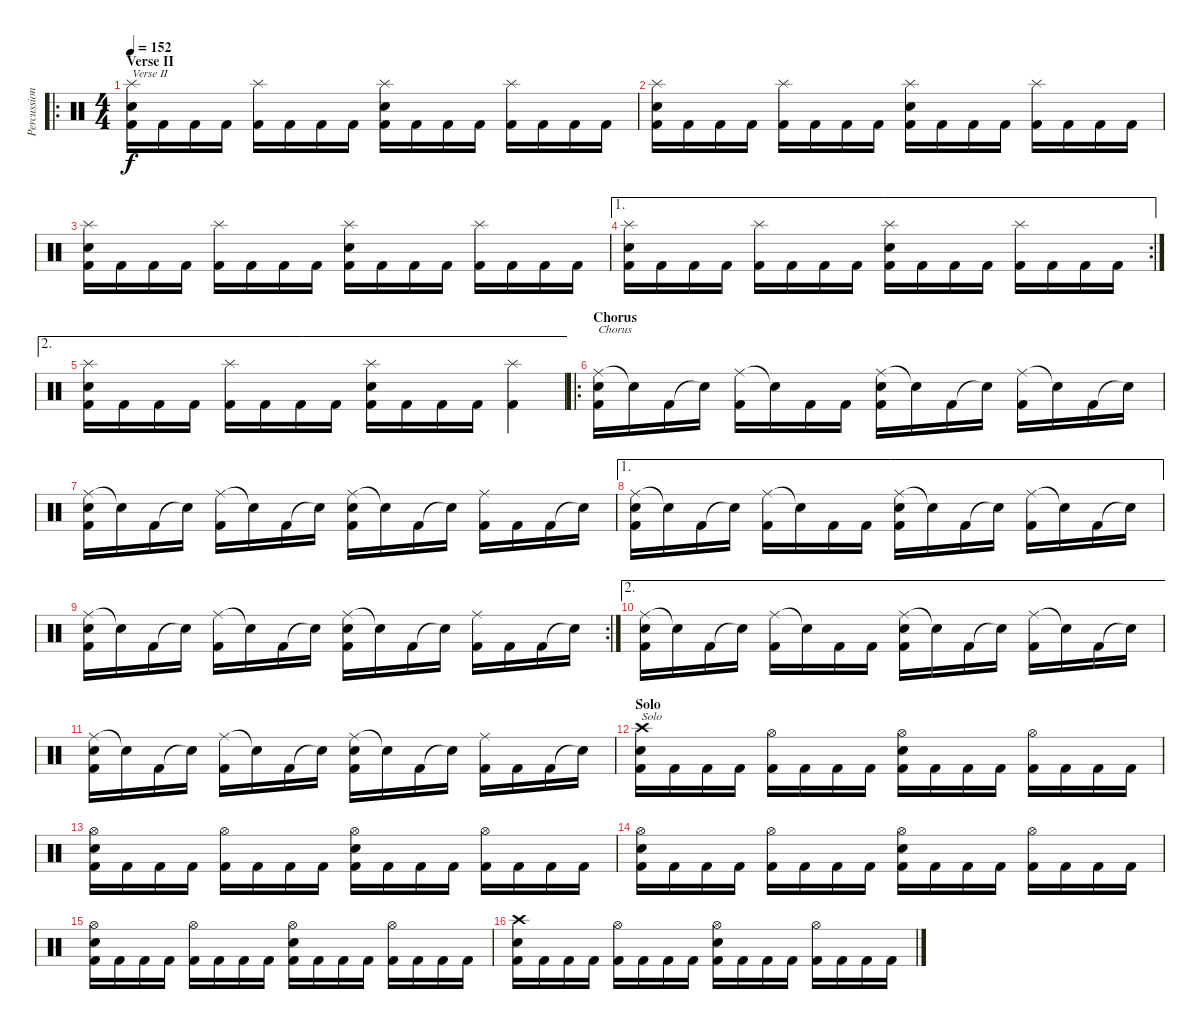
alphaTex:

\track ("Percussion" "Percussion") {instrument percussion}
\staff {score}
\articulation defaults
\ro
\ts (4 4)
\section ("" "Verse II")
\tempo 152
\clef neutral
\ks c
("Splash (hit)" "Electric Snare (hit)" "Kick (hit) 2").16{txt "Verse II" dy f} "Kick (hit) 2".16 "Kick (hit) 2".16 "Kick (hit) 2".16 ("Splash (hit)" "Kick (hit) 2").16 "Kick (hit) 2".16 "Kick (hit) 2".16 "Kick (hit) 2".16 ("Splash (hit)" "Electric Snare (hit)" "Kick (hit) 2").16 "Kick (hit) 2".16 "Kick (hit) 2".16 "Kick (hit) 2".16 ("Splash (hit)" "Kick (hit) 2").16 "Kick (hit) 2".16 "Kick (hit) 2".16 "Kick (hit) 2".16 |
("Splash (hit)" "Electric Snare (hit)" "Kick (hit) 2").16 "Kick (hit) 2".16 "Kick (hit) 2".16 "Kick (hit) 2".16 ("Splash (hit)" "Kick (hit) 2").16 "Kick (hit) 2".16 "Kick (hit) 2".16 "Kick (hit) 2".16 ("Splash (hit)" "Electric Snare (hit)" "Kick (hit) 2").16 "Kick (hit) 2".16 "Kick (hit) 2".16 "Kick (hit) 2".16 ("Splash (hit)" "Kick (hit) 2").16 "Kick (hit) 2".16 "Kick (hit) 2".16 "Kick (hit) 2".16 |
("Splash (hit)" "Electric Snare (hit)" "Kick (hit) 2").16 "Kick (hit) 2".16 "Kick (hit) 2".16 "Kick (hit) 2".16 ("Splash (hit)" "Kick (hit) 2").16 "Kick (hit) 2".16 "Kick (hit) 2".16 "Kick (hit) 2".16 ("Splash (hit)" "Electric Snare (hit)" "Kick (hit) 2").16 "Kick (hit) 2".16 "Kick (hit) 2".16 "Kick (hit) 2".16 ("Splash (hit)" "Kick (hit) 2").16 "Kick (hit) 2".16 "Kick (hit) 2".16 "Kick (hit) 2".16 |
\ae 1
\rc 2
("Splash (hit)" "Electric Snare (hit)" "Kick (hit) 2").16 "Kick (hit) 2".16 "Kick (hit) 2".16 "Kick (hit) 2".16 ("Splash (hit)" "Kick (hit) 2").16 "Kick (hit) 2".16 "Kick (hit) 2".16 "Kick (hit) 2".16 ("Splash (hit)" "Electric Snare (hit)" "Kick (hit) 2").16 "Kick (hit) 2".16 "Kick (hit) 2".16 "Kick (hit) 2".16 ("Splash (hit)" "Kick (hit) 2").16 "Kick (hit) 2".16 "Kick (hit) 2".16 "Kick (hit) 2".16 |
\ae 2
("Splash (hit)" "Electric Snare (hit)" "Kick (hit) 2").16 "Kick (hit) 2".16 "Kick (hit) 2".16 "Kick (hit) 2".16 ("Splash (hit)" "Kick (hit) 2").16 "Kick (hit) 2".16 "Kick (hit) 2".16 "Kick (hit) 2".16 ("Splash (hit)" "Electric Snare (hit)" "Kick (hit) 2").16 "Kick (hit) 2".16 "Kick (hit) 2".16 "Kick (hit) 2".16 ("Splash (hit)" "Kick (hit) 2").4 |
\ro
\section ("" "Chorus")
("Ride (middle)" "Electric Snare (hit)" "Kick (hit) 2").16{txt "Chorus"} "Snare (hit)"{t}.16 "Kick (hit) 2".16 "Snare (hit)"{t}.16 ("Ride (middle)" "Kick (hit) 2").16 "Snare (hit)"{t}.16 "Kick (hit) 2".16 "Kick (hit) 2".16 ("Ride (middle)" "Electric Snare (hit)" "Kick (hit) 2").16 "Snare (hit)"{t}.16 "Kick (hit) 2".16 "Snare (hit)"{t}.16 ("Ride (middle)" "Kick (hit) 2").16 "Snare (hit)"{t}.16 "Kick (hit) 2".16 "Snare (hit)"{t}.16 |
("Ride (middle)" "Electric Snare (hit)" "Kick (hit) 2").16 "Snare (hit)"{t}.16 "Kick (hit) 2".16 "Snare (hit)"{t}.16 ("Ride (middle)" "Kick (hit) 2").16 "Snare (hit)"{t}.16 "Kick (hit) 2".16 "Snare (hit)"{t}.16 ("Ride (middle)" "Electric Snare (hit)" "Kick (hit) 2").16 "Snare (hit)"{t}.16 "Kick (hit) 2".16 "Snare (hit)"{t}.16 ("Ride (middle)" "Kick (hit) 2").16 "Kick (hit) 2".16 "Kick (hit) 2".16 "Snare (hit)"{t}.16 |
\ae 1
("Ride (middle)" "Electric Snare (hit)" "Kick (hit) 2").16 "Snare (hit)"{t}.16 "Kick (hit) 2".16 "Snare (hit)"{t}.16 ("Ride (middle)" "Kick (hit) 2").16 "Snare (hit)"{t}.16 "Kick (hit) 2".16 "Kick (hit) 2".16 ("Ride (middle)" "Electric Snare (hit)" "Kick (hit) 2").16 "Snare (hit)"{t}.16 "Kick (hit) 2".16 "Snare (hit)"{t}.16 ("Ride (middle)" "Kick (hit) 2").16 "Snare (hit)"{t}.16 "Kick (hit) 2".16 "Snare (hit)"{t}.16 |
\rc 2
("Ride (middle)" "Electric Snare (hit)" "Kick (hit) 2").16 "Snare (hit)"{t}.16 "Kick (hit) 2".16 "Snare (hit)"{t}.16 ("Ride (middle)" "Kick (hit) 2").16 "Snare (hit)"{t}.16 "Kick (hit) 2".16 "Snare (hit)"{t}.16 ("Ride (middle)" "Electric Snare (hit)" "Kick (hit) 2").16 "Snare (hit)"{t}.16 "Kick (hit) 2".16 "Snare (hit)"{t}.16 ("Ride (middle)" "Kick (hit) 2").16 "Kick (hit) 2".16 "Kick (hit) 2".16 "Snare (hit)"{t}.16 |
\ae 2
("Ride (middle)" "Electric Snare (hit)" "Kick (hit) 2").16 "Snare (hit)"{t}.16 "Kick (hit) 2".16 "Snare (hit)"{t}.16 ("Ride (middle)" "Kick (hit) 2").16 "Snare (hit)"{t}.16 "Kick (hit) 2".16 "Kick (hit) 2".16 ("Ride (middle)" "Electric Snare (hit)" "Kick (hit) 2").16 "Snare (hit)"{t}.16 "Kick (hit) 2".16 "Snare (hit)"{t}.16 ("Ride (middle)" "Kick (hit) 2").16 "Snare (hit)"{t}.16 "Kick (hit) 2".16 "Snare (hit)"{t}.16 |
("Ride (middle)" "Electric Snare (hit)" "Kick (hit) 2").16 "Snare (hit)"{t}.16 "Kick (hit) 2".16 "Snare (hit)"{t}.16 ("Ride (middle)" "Kick (hit) 2").16 "Snare (hit)"{t}.16 "Kick (hit) 2".16 "Snare (hit)"{t}.16 ("Ride (middle)" "Electric Snare (hit)" "Kick (hit) 2").16 "Snare (hit)"{t}.16 "Kick (hit) 2".16 "Snare (hit)"{t}.16 ("Ride (middle)" "Kick (hit) 2").16 "Kick (hit) 2".16 "Kick (hit) 2".16 "Snare (hit)"{t}.16 |
\section ("" "Solo")
("Crash high (hit)" "Electric Snare (hit)" "Kick (hit) 2").16{txt "Solo"} "Kick (hit) 2".16 "Kick (hit) 2".16 "Kick (hit) 2".16 ("Hi-Hat (open)" "Kick (hit) 2").16 "Kick (hit) 2".16 "Kick (hit) 2".16 "Kick (hit) 2".16 ("Hi-Hat (open)" "Electric Snare (hit)" "Kick (hit) 2").16 "Kick (hit) 2".16 "Kick (hit) 2".16 "Kick (hit) 2".16 ("Hi-Hat (open)" "Kick (hit) 2").16 "Kick (hit) 2".16 "Kick (hit) 2".16 "Kick (hit) 2".16 |
("Hi-Hat (open)" "Electric Snare (hit)" "Kick (hit) 2").16 "Kick (hit) 2".16 "Kick (hit) 2".16 "Kick (hit) 2".16 ("Hi-Hat (open)" "Kick (hit) 2").16 "Kick (hit) 2".16 "Kick (hit) 2".16 "Kick (hit) 2".16 ("Hi-Hat (open)" "Electric Snare (hit)" "Kick (hit) 2").16 "Kick (hit) 2".16 "Kick (hit) 2".16 "Kick (hit) 2".16 ("Hi-Hat (open)" "Kick (hit) 2").16 "Kick (hit) 2".16 "Kick (hit) 2".16 "Kick (hit) 2".16 |
("Hi-Hat (open)" "Electric Snare (hit)" "Kick (hit) 2").16 "Kick (hit) 2".16 "Kick (hit) 2".16 "Kick (hit) 2".16 ("Hi-Hat (open)" "Kick (hit) 2").16 "Kick (hit) 2".16 "Kick (hit) 2".16 "Kick (hit) 2".16 ("Hi-Hat (open)" "Electric Snare (hit)" "Kick (hit) 2").16 "Kick (hit) 2".16 "Kick (hit) 2".16 "Kick (hit) 2".16 ("Hi-Hat (open)" "Kick (hit) 2").16 "Kick (hit) 2".16 "Kick (hit) 2".16 "Kick (hit) 2".16 |
("Hi-Hat (open)" "Electric Snare (hit)" "Kick (hit) 2").16 "Kick (hit) 2".16 "Kick (hit) 2".16 "Kick (hit) 2".16 ("Hi-Hat (open)" "Kick (hit) 2").16 "Kick (hit) 2".16 "Kick (hit) 2".16 "Kick (hit) 2".16 ("Hi-Hat (open)" "Electric Snare (hit)" "Kick (hit) 2").16 "Kick (hit) 2".16 "Kick (hit) 2".16 "Kick (hit) 2".16 ("Hi-Hat (open)" "Kick (hit) 2").16 "Kick (hit) 2".16 "Kick (hit) 2".16 "Kick (hit) 2".16 |
("Crash high (hit)" "Electric Snare (hit)" "Kick (hit) 2").16 "Kick (hit) 2".16 "Kick (hit) 2".16 "Kick (hit) 2".16 ("Hi-Hat (open)" "Kick (hit) 2").16 "Kick (hit) 2".16 "Kick (hit) 2".16 "Kick (hit) 2".16 ("Hi-Hat (open)" "Electric Snare (hit)" "Kick (hit) 2").16 "Kick (hit) 2".16 "Kick (hit) 2".16 "Kick (hit) 2".16 ("Hi-Hat (open)" "Kick (hit) 2").16 "Kick (hit) 2".16 "Kick (hit) 2".16 "Kick (hit) 2".16
